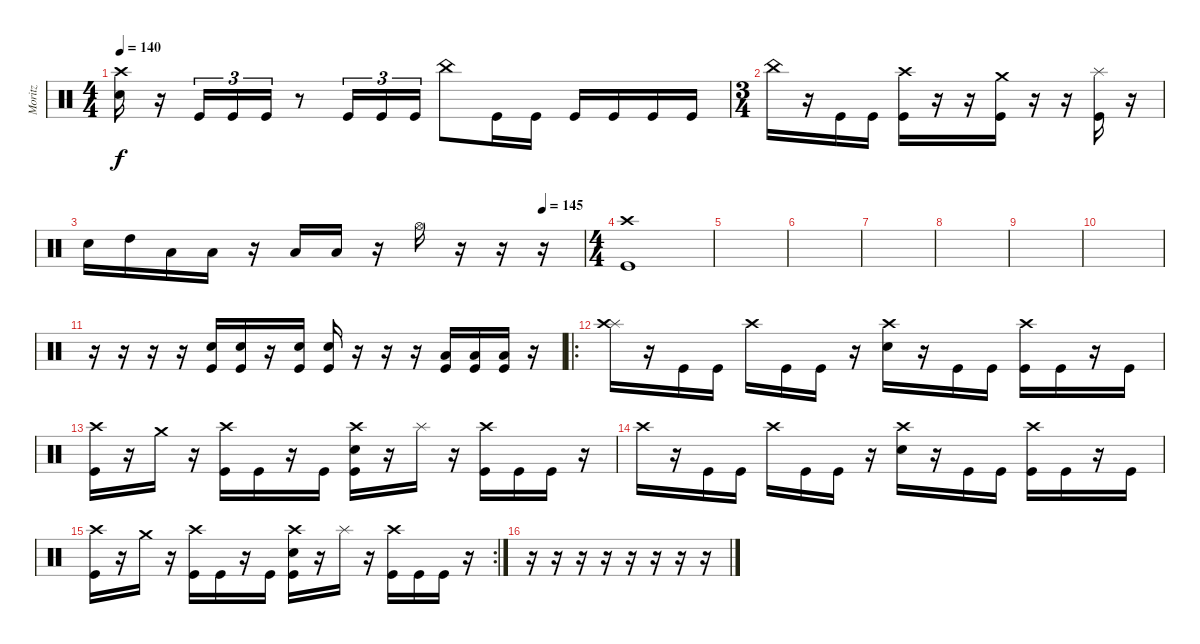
\track ("Moritz" "Moritz") {instrument percussion}
\staff {score}
\articulation defaults
\ts (4 4)
\tempo 140
\clef neutral
\ks c
("Crash high (hit)" "Snare (hit) 2").16{dy f} r.16 "Kick (hit)".16{tu (3 2)} "Kick (hit)".16{tu (3 2)} "Kick (hit)".16{tu (3 2)} r.8 "Kick (hit)".16{tu (3 2)} "Kick (hit)".16{tu (3 2)} "Kick (hit)".16{tu (3 2)} "China (hit)".8 "Kick (hit)".16 "Kick (hit)".16 "Kick (hit)".16 "Kick (hit)".16 "Kick (hit)".16 "Kick (hit)".16 |
\ts (3 4)
"China (hit)".16 r.16 "Kick (hit)".16 "Kick (hit)".16 ("Crash high (hit)" "Kick (hit)").16 r.16 r.16 ("Crash medium (hit)" "Kick (hit)").16 r.16 r.16 ("Splash (hit)" "Kick (hit)").16 r.16 |
\tempo (145 0.9166666666666666)
"Snare (hit) 2".16 "High Tom (hit)".16 "Low Tom (hit)".16 "Low Tom (hit)".16 r.16 "Low Tom (hit)".16 "Low Floor Tom (hit)".16 r.16 "Hi-Hat (open)".16 r.16 r.16 r.16 |
\ts (4 4)
("Crash high (hit)" "Kick (hit)").1 |
|
|
|
|
|
|
r.16 r.16 r.16 r.16 ("Snare (hit) 2" "Kick (hit)").16 ("Snare (hit) 2" "Kick (hit)").16 r.16 ("Snare (hit) 2" "Kick (hit)").16 ("Snare (hit) 2" "Kick (hit)").16 r.16 r.16 r.16 ("Low Floor Tom (hit)" "Kick (hit)").16 ("Low Floor Tom (hit)" "Kick (hit)").16 ("Low Floor Tom (hit)" "Kick (hit)").16 r.16 |
\ro
("Splash (hit)" "Crash high (hit)").16 r.16 "Kick (hit)".16 "Kick (hit)".16 "Crash high (hit)".16 "Kick (hit)".16 "Kick (hit)".16 r.16 ("Crash high (hit)" "Snare (hit) 2").16 r.16 "Kick (hit)".16 "Kick (hit)".16 ("Crash high (hit)" "Kick (hit)").16 "Kick (hit)".16 r.16 "Kick (hit)".16 |
("Crash high (hit)" "Kick (hit)").16 r.16 "Crash medium (hit)".16 r.16 ("Crash high (hit)" "Kick (hit)").16 "Kick (hit)".16 r.16 "Kick (hit)".16 ("Crash high (hit)" "Snare (hit) 2" "Kick (hit)").16 r.16 "Splash (hit)".16 r.16 ("Crash high (hit)" "Kick (hit)").16 "Kick (hit)".16 "Kick (hit)".16 r.16 |
"Crash high (hit)".16 r.16 "Kick (hit)".16 "Kick (hit)".16 "Crash high (hit)".16 "Kick (hit)".16 "Kick (hit)".16 r.16 ("Crash high (hit)" "Snare (hit) 2").16 r.16 "Kick (hit)".16 "Kick (hit)".16 ("Crash high (hit)" "Kick (hit)").16 "Kick (hit)".16 r.16 "Kick (hit)".16 |
\rc 2
("Crash high (hit)" "Kick (hit)").16 r.16 "Crash medium (hit)".16 r.16 ("Crash high (hit)" "Kick (hit)").16 "Kick (hit)".16 r.16 "Kick (hit)".16 ("Crash high (hit)" "Snare (hit) 2" "Kick (hit)").16 r.16 "Splash (hit)".16 r.16 ("Crash high (hit)" "Kick (hit)").16 "Kick (hit)".16 "Kick (hit)".16 r.16 |
r.16 r.16 r.16 r.16 r.16 r.16 r.16 r.16
